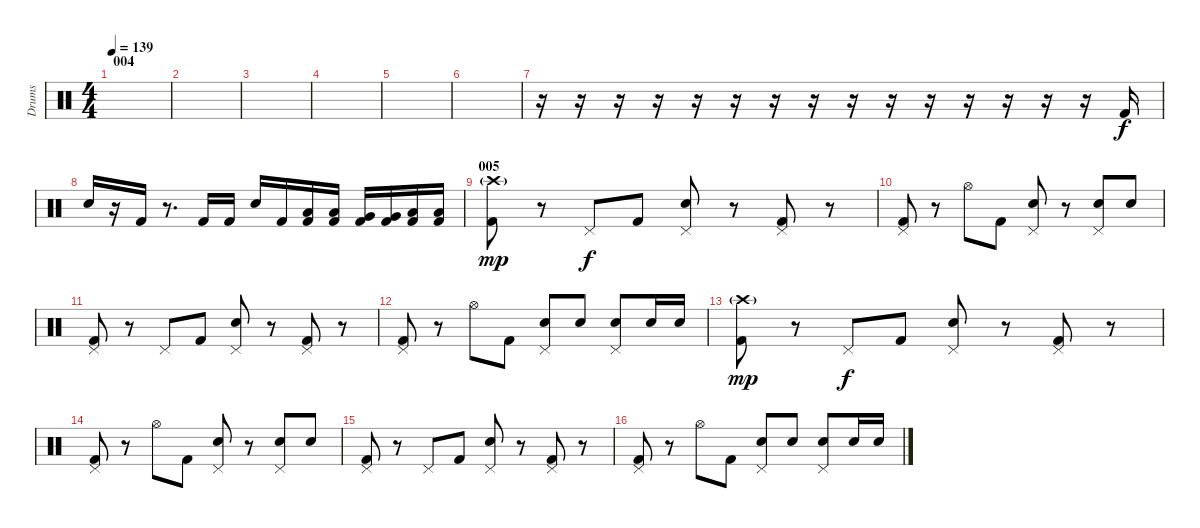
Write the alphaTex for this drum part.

\track ("Drums" "Drums") {instrument percussion}
\staff {score}
\articulation defaults
\ts (4 4)
\section ("" "004")
\tempo 139
\clef neutral
\ks c
|
|
|
|
|
|
r.16 r.16 r.16 r.16 r.16 r.16 r.16 r.16 r.16 r.16 r.16 r.16 r.16 r.16 r.16 "Kick (hit) 2".16 |
"Electric Snare (hit)".16 r.16 "Kick (hit) 2".16 r.8{d} "Kick (hit) 2".16 "Kick (hit) 2".16 "Electric Snare (hit)".16 "Kick (hit) 2".16 ("Low Tom (hit)" "Kick (hit) 2").16 ("Low Tom (hit)" "Kick (hit) 2").16 ("Very Low Tom (hit)" "Kick (hit) 2").16 ("Very Low Tom (hit)" "Kick (hit) 2").16 ("Low Floor Tom (hit)" "Kick (hit) 2").16 ("Low Floor Tom (hit)" "Kick (hit) 2").16 |
\section ("" "005")
("Kick (hit) 2" "Crash high (hit)"{g}).8{dy mp} r.8 "Pedal Hi-Hat (hit)".8{dy f} "Kick (hit) 2".8 ("Electric Snare (hit)" "Pedal Hi-Hat (hit)").8 r.8 ("Kick (hit) 2" "Pedal Hi-Hat (hit)").8 r.8 |
("Kick (hit) 2" "Pedal Hi-Hat (hit)").8 r.8 "Hi-Hat (open)".8 "Kick (hit) 2".8 ("Electric Snare (hit)" "Pedal Hi-Hat (hit)").8 r.8 ("Electric Snare (hit)" "Pedal Hi-Hat (hit)").8 "Electric Snare (hit)".8 |
("Kick (hit) 2" "Pedal Hi-Hat (hit)").8 r.8 "Pedal Hi-Hat (hit)".8 "Kick (hit) 2".8 ("Electric Snare (hit)" "Pedal Hi-Hat (hit)").8 r.8 ("Kick (hit) 2" "Pedal Hi-Hat (hit)").8 r.8 |
("Kick (hit) 2" "Pedal Hi-Hat (hit)").8 r.8 "Hi-Hat (open)".8 "Kick (hit) 2".8 ("Electric Snare (hit)" "Pedal Hi-Hat (hit)").8 "Electric Snare (hit)".8 ("Electric Snare (hit)" "Pedal Hi-Hat (hit)").8 "Electric Snare (hit)".16 "Electric Snare (hit)".16 |
("Kick (hit) 2" "Crash high (hit)"{g}).8{dy mp} r.8 "Pedal Hi-Hat (hit)".8{dy f} "Kick (hit) 2".8 ("Electric Snare (hit)" "Pedal Hi-Hat (hit)").8 r.8 ("Kick (hit) 2" "Pedal Hi-Hat (hit)").8 r.8 |
("Kick (hit) 2" "Pedal Hi-Hat (hit)").8 r.8 "Hi-Hat (open)".8 "Kick (hit) 2".8 ("Electric Snare (hit)" "Pedal Hi-Hat (hit)").8 r.8 ("Electric Snare (hit)" "Pedal Hi-Hat (hit)").8 "Electric Snare (hit)".8 |
("Kick (hit) 2" "Pedal Hi-Hat (hit)").8 r.8 "Pedal Hi-Hat (hit)".8 "Kick (hit) 2".8 ("Electric Snare (hit)" "Pedal Hi-Hat (hit)").8 r.8 ("Kick (hit) 2" "Pedal Hi-Hat (hit)").8 r.8 |
("Kick (hit) 2" "Pedal Hi-Hat (hit)").8 r.8 "Hi-Hat (open)".8 "Kick (hit) 2".8 ("Electric Snare (hit)" "Pedal Hi-Hat (hit)").8 "Electric Snare (hit)".8 ("Electric Snare (hit)" "Pedal Hi-Hat (hit)").8 "Electric Snare (hit)".16 "Electric Snare (hit)".16
